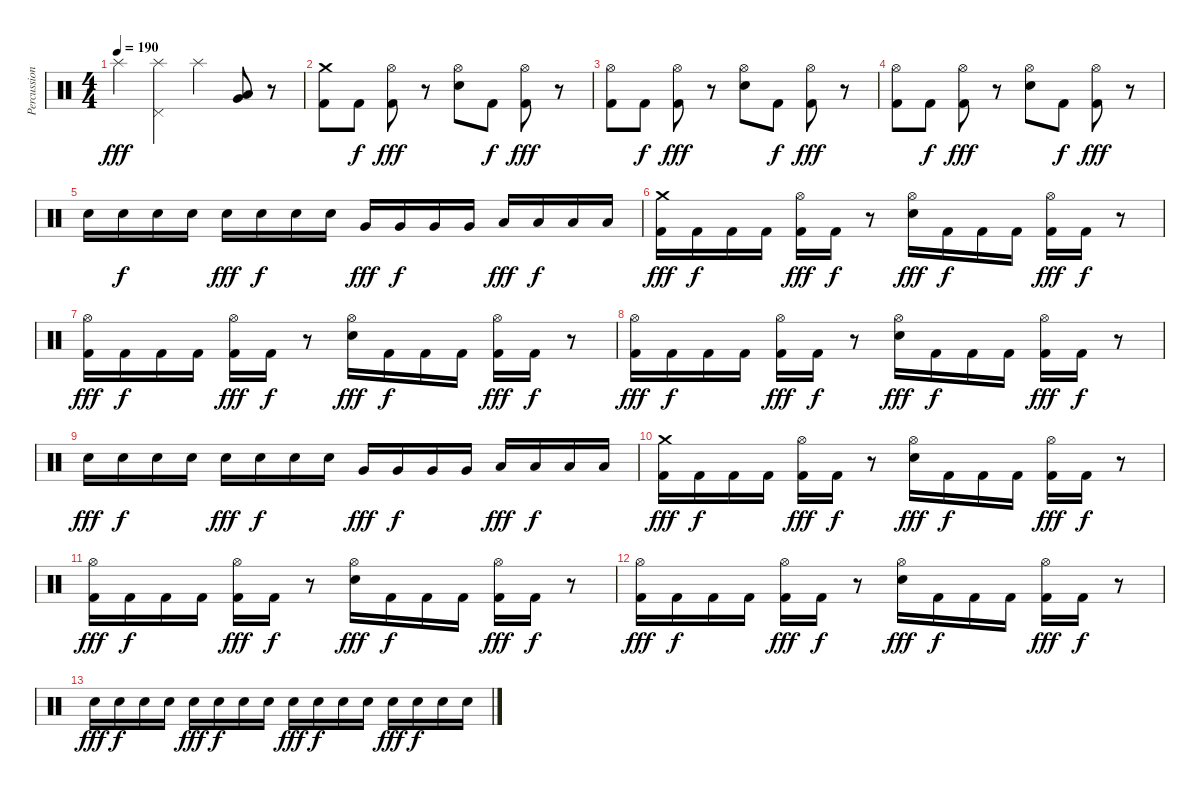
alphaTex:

\track ("Percussions" "Percussion") {instrument percussion}
\staff {score}
\articulation defaults
\ts (4 4)
\tempo 190
\clef neutral
\ks c "Splash (hit)".4{dy fff}
("Splash (hit)" "Pedal Hi-Hat (hit)").4 "Splash (hit)".4 ("Very Low Tom (hit)" "Low Floor Tom (hit)").8 r.8 |
("Crash medium (hit)" "Kick (hit) 2").8 "Kick (hit) 2".8{dy f} ("Hi-Hat (open)" "Kick (hit) 2").8{dy fff} r.8 ("Hi-Hat (open)" "Snare (hit) 2").8 "Kick (hit) 2".8{dy f} ("Hi-Hat (open)" "Kick (hit) 2").8{dy fff} r.8 |
("Hi-Hat (open)" "Kick (hit) 2").8 "Kick (hit) 2".8{dy f} ("Hi-Hat (open)" "Kick (hit) 2").8{dy fff} r.8 ("Hi-Hat (open)" "Snare (hit) 2").8 "Kick (hit) 2".8{dy f} ("Hi-Hat (open)" "Kick (hit) 2").8{dy fff} r.8 |
("Hi-Hat (open)" "Kick (hit) 2").8 "Kick (hit) 2".8{dy f} ("Hi-Hat (open)" "Kick (hit) 2").8{dy fff} r.8 ("Hi-Hat (open)" "Snare (hit) 2").8 "Kick (hit) 2".8{dy f} ("Hi-Hat (open)" "Kick (hit) 2").8{dy fff} r.8 |
"Snare (hit) 2".16 "Snare (hit) 2".16{dy f} "Snare (hit) 2".16 "Snare (hit) 2".16 "Snare (hit) 2".16{dy fff} "Snare (hit) 2".16{dy f} "Snare (hit) 2".16 "Snare (hit) 2".16 "Very Low Tom (hit)".16{dy fff} "Very Low Tom (hit)".16{dy f} "Very Low Tom (hit)".16 "Very Low Tom (hit)".16 "Low Floor Tom (hit)".16{dy fff} "Low Floor Tom (hit)".16{dy f} "Low Floor Tom (hit)".16 "Low Floor Tom (hit)".16 |
("Crash medium (hit)" "Kick (hit) 2").16{dy fff} "Kick (hit) 2".16{dy f} "Kick (hit) 2".16 "Kick (hit) 2".16 ("Hi-Hat (open)" "Kick (hit) 2").16{dy fff} "Kick (hit) 2".16{dy f} r.8 ("Hi-Hat (open)" "Snare (hit) 2").16{dy fff} "Kick (hit) 2".16{dy f} "Kick (hit) 2".16 "Kick (hit) 2".16 ("Hi-Hat (open)" "Kick (hit) 2").16{dy fff} "Kick (hit) 2".16{dy f} r.8 |
("Hi-Hat (open)" "Kick (hit) 2").16{dy fff} "Kick (hit) 2".16{dy f} "Kick (hit) 2".16 "Kick (hit) 2".16 ("Hi-Hat (open)" "Kick (hit) 2").16{dy fff} "Kick (hit) 2".16{dy f} r.8 ("Hi-Hat (open)" "Snare (hit) 2").16{dy fff} "Kick (hit) 2".16{dy f} "Kick (hit) 2".16 "Kick (hit) 2".16 ("Hi-Hat (open)" "Kick (hit) 2").16{dy fff} "Kick (hit) 2".16{dy f} r.8 |
("Hi-Hat (open)" "Kick (hit) 2").16{dy fff} "Kick (hit) 2".16{dy f} "Kick (hit) 2".16 "Kick (hit) 2".16 ("Hi-Hat (open)" "Kick (hit) 2").16{dy fff} "Kick (hit) 2".16{dy f} r.8 ("Hi-Hat (open)" "Snare (hit) 2").16{dy fff} "Kick (hit) 2".16{dy f} "Kick (hit) 2".16 "Kick (hit) 2".16 ("Hi-Hat (open)" "Kick (hit) 2").16{dy fff} "Kick (hit) 2".16{dy f} r.8 |
"Snare (hit) 2".16{dy fff} "Snare (hit) 2".16{dy f} "Snare (hit) 2".16 "Snare (hit) 2".16 "Snare (hit) 2".16{dy fff} "Snare (hit) 2".16{dy f} "Snare (hit) 2".16 "Snare (hit) 2".16 "Very Low Tom (hit)".16{dy fff} "Very Low Tom (hit)".16{dy f} "Very Low Tom (hit)".16 "Very Low Tom (hit)".16 "Low Floor Tom (hit)".16{dy fff} "Low Floor Tom (hit)".16{dy f} "Low Floor Tom (hit)".16 "Low Floor Tom (hit)".16 |
("Crash medium (hit)" "Kick (hit) 2").16{dy fff} "Kick (hit) 2".16{dy f} "Kick (hit) 2".16 "Kick (hit) 2".16 ("Hi-Hat (open)" "Kick (hit) 2").16{dy fff} "Kick (hit) 2".16{dy f} r.8 ("Hi-Hat (open)" "Snare (hit) 2").16{dy fff} "Kick (hit) 2".16{dy f} "Kick (hit) 2".16 "Kick (hit) 2".16 ("Hi-Hat (open)" "Kick (hit) 2").16{dy fff} "Kick (hit) 2".16{dy f} r.8 |
("Hi-Hat (open)" "Kick (hit) 2").16{dy fff} "Kick (hit) 2".16{dy f} "Kick (hit) 2".16 "Kick (hit) 2".16 ("Hi-Hat (open)" "Kick (hit) 2").16{dy fff} "Kick (hit) 2".16{dy f} r.8 ("Hi-Hat (open)" "Snare (hit) 2").16{dy fff} "Kick (hit) 2".16{dy f} "Kick (hit) 2".16 "Kick (hit) 2".16 ("Hi-Hat (open)" "Kick (hit) 2").16{dy fff} "Kick (hit) 2".16{dy f} r.8 |
("Hi-Hat (open)" "Kick (hit) 2").16{dy fff} "Kick (hit) 2".16{dy f} "Kick (hit) 2".16 "Kick (hit) 2".16 ("Hi-Hat (open)" "Kick (hit) 2").16{dy fff} "Kick (hit) 2".16{dy f} r.8 ("Hi-Hat (open)" "Snare (hit) 2").16{dy fff} "Kick (hit) 2".16{dy f} "Kick (hit) 2".16 "Kick (hit) 2".16 ("Hi-Hat (open)" "Kick (hit) 2").16{dy fff} "Kick (hit) 2".16{dy f} r.8 |
"Snare (hit) 2".16{dy fff} "Snare (hit) 2".16{dy f} "Snare (hit) 2".16 "Snare (hit) 2".16 "Snare (hit) 2".16{dy fff} "Snare (hit) 2".16{dy f} "Snare (hit) 2".16 "Snare (hit) 2".16 "Snare (hit) 2".16{dy fff} "Snare (hit) 2".16{dy f} "Snare (hit) 2".16 "Snare (hit) 2".16 "Snare (hit) 2".16{dy fff} "Snare (hit) 2".16{dy f} "Snare (hit) 2".16 "Snare (hit) 2".16
